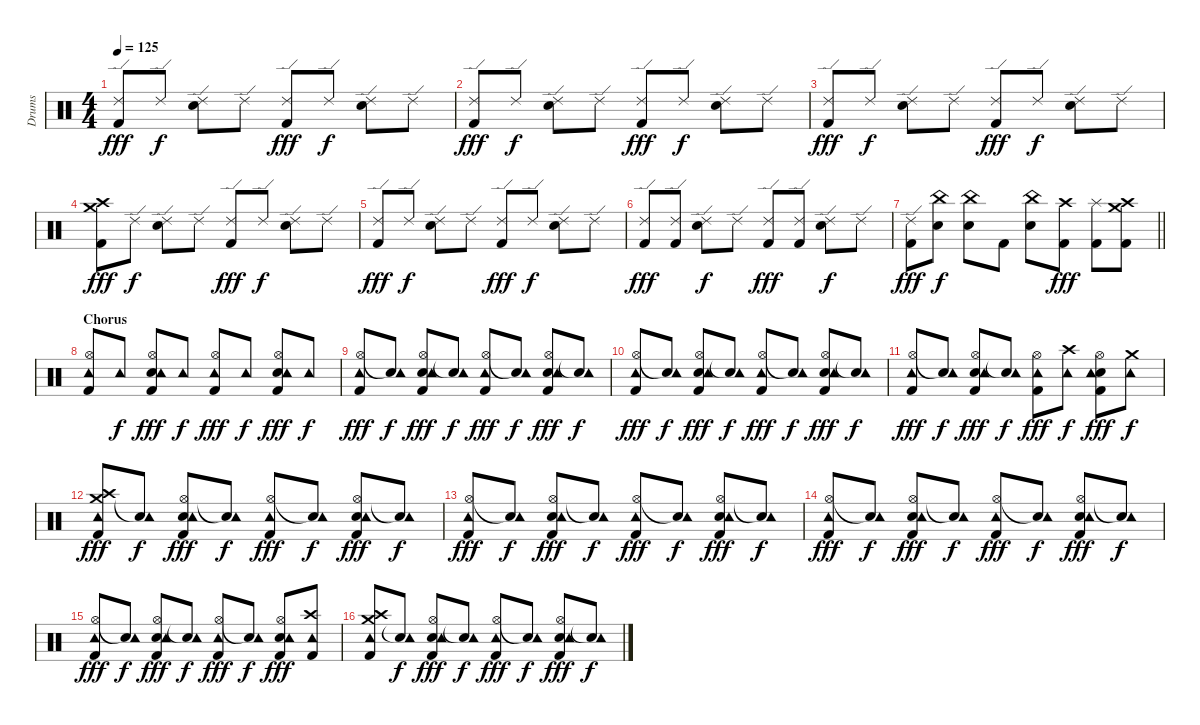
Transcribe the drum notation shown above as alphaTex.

\track ("Drums" "Drums") {instrument percussion}
\staff {score}
\articulation defaults
\ts (4 4)
\tempo 125
\clef neutral
\ks c
("Ride (edge) 2" "Kick (hit) 2").8{dy fff} "Ride (edge) 2".8{dy f} ("Ride (edge) 2" "Electric Snare (hit)").8 "Ride (edge) 2".8 ("Ride (edge) 2" "Kick (hit) 2").8{dy fff} "Ride (edge) 2".8{dy f} ("Ride (edge) 2" "Electric Snare (hit)").8 "Ride (edge) 2".8 |
("Ride (edge) 2" "Kick (hit) 2").8{dy fff} "Ride (edge) 2".8{dy f} ("Ride (edge) 2" "Electric Snare (hit)").8 "Ride (edge) 2".8 ("Ride (edge) 2" "Kick (hit) 2").8{dy fff} "Ride (edge) 2".8{dy f} ("Ride (edge) 2" "Electric Snare (hit)").8 "Ride (edge) 2".8 |
("Ride (edge) 2" "Kick (hit) 2").8{dy fff} "Ride (edge) 2".8{dy f} ("Ride (edge) 2" "Electric Snare (hit)").8 "Ride (edge) 2".8 ("Ride (edge) 2" "Kick (hit) 2").8{dy fff} "Ride (edge) 2".8{dy f} ("Ride (edge) 2" "Electric Snare (hit)").8 "Ride (edge) 2".8 |
("Crash high (hit)" "Kick (hit) 2" "Crash medium (hit)").8{dy fff} "Ride (edge) 2".8{dy f} ("Ride (edge) 2" "Electric Snare (hit)").8 "Ride (edge) 2".8 ("Ride (edge) 2" "Kick (hit) 2").8{dy fff} "Ride (edge) 2".8{dy f} ("Ride (edge) 2" "Electric Snare (hit)").8 "Ride (edge) 2".8 |
("Ride (edge) 2" "Kick (hit) 2").8{dy fff} "Ride (edge) 2".8{dy f} ("Ride (edge) 2" "Electric Snare (hit)").8 "Ride (edge) 2".8 ("Ride (edge) 2" "Kick (hit) 2").8{dy fff} "Ride (edge) 2".8{dy f} ("Ride (edge) 2" "Electric Snare (hit)").8 "Ride (edge) 2".8 |
("Ride (edge) 2" "Kick (hit) 2").8{dy fff} ("Ride (edge) 2" "Kick (hit) 2").8 ("Ride (edge) 2" "Electric Snare (hit)").8{dy f} "Ride (edge) 2".8 ("Ride (edge) 2" "Kick (hit) 2").8{dy fff} ("Ride (edge) 2" "Kick (hit) 2").8 ("Ride (edge) 2" "Electric Snare (hit)").8{dy f} "Ride (edge) 2".8 |
\barLineRight lightlight
("Ride (edge) 2" "Kick (hit) 2").8{dy fff} ("Electric Snare (hit)" "China (hit)").8{dy f} ("Electric Snare (hit)" "China (hit)").8 "Kick (hit) 2".8 ("Electric Snare (hit)" "China (hit)").8 ("Crash high (hit)" "Kick (hit) 2").8{dy fff} ("Splash (hit)" "Kick (hit) 2").8 ("Crash medium (hit)" "Kick (hit) 2" "Crash high (hit)").8 |
\section ("" "Chorus")
("Hi-Hat (open)" "Kick (hit) 2" "Tambourine (hit)").8 "Tambourine (hit)".8{dy f} ("Hi-Hat (open)" "Kick (hit) 2" "Electric Snare (hit)" "Tambourine (hit)").8{dy fff} "Tambourine (hit)".8{dy f} ("Hi-Hat (open)" "Kick (hit) 2" "Tambourine (hit)").8{dy fff} "Tambourine (hit)".8{dy f} ("Hi-Hat (open)" "Kick (hit) 2" "Electric Snare (hit)" "Tambourine (hit)").8{dy fff} "Tambourine (hit)".8{dy f} |
("Hi-Hat (open)" "Kick (hit) 2" "Tambourine (hit)").8{dy fff} ("Snare (hit)"{t} "Tambourine (hit)").8{dy f} ("Hi-Hat (open)" "Kick (hit) 2" "Electric Snare (hit)" "Tambourine (hit)").8{dy fff} ("Snare (hit)"{t} "Tambourine (hit)").8{dy f} ("Hi-Hat (open)" "Kick (hit) 2" "Tambourine (hit)").8{dy fff} ("Snare (hit)"{t} "Tambourine (hit)").8{dy f} ("Hi-Hat (open)" "Kick (hit) 2" "Electric Snare (hit)" "Tambourine (hit)").8{dy fff} ("Snare (hit)"{t} "Tambourine (hit)").8{dy f} |
("Hi-Hat (open)" "Kick (hit) 2" "Tambourine (hit)").8{dy fff} ("Snare (hit)"{t} "Tambourine (hit)").8{dy f} ("Hi-Hat (open)" "Kick (hit) 2" "Electric Snare (hit)" "Tambourine (hit)").8{dy fff} ("Snare (hit)"{t} "Tambourine (hit)").8{dy f} ("Hi-Hat (open)" "Kick (hit) 2" "Tambourine (hit)").8{dy fff} ("Snare (hit)"{t} "Tambourine (hit)").8{dy f} ("Hi-Hat (open)" "Kick (hit) 2" "Electric Snare (hit)" "Tambourine (hit)").8{dy fff} ("Snare (hit)"{t} "Tambourine (hit)").8{dy f} |
("Hi-Hat (open)" "Kick (hit) 2" "Tambourine (hit)").8{dy fff} ("Snare (hit)"{t} "Tambourine (hit)").8{dy f} ("Hi-Hat (open)" "Kick (hit) 2" "Electric Snare (hit)" "Tambourine (hit)").8{dy fff} ("Snare (hit)"{t} "Tambourine (hit)").8{dy f} ("Hi-Hat (open)" "Kick (hit) 2" "Tambourine (hit)").8{dy fff} ("Crash high (hit)" "Tambourine (hit)").8{dy f} ("Hi-Hat (open)" "Kick (hit) 2" "Electric Snare (hit)" "Tambourine (hit)").8{dy fff} ("Crash medium (hit)" "Tambourine (hit)").8{dy f} |
("Crash high (hit)" "Kick (hit) 2" "Crash medium (hit)" "Tambourine (hit)").8{dy fff} ("Snare (hit)"{t} "Tambourine (hit)").8{dy f} ("Hi-Hat (open)" "Kick (hit) 2" "Electric Snare (hit)" "Tambourine (hit)").8{dy fff} ("Snare (hit)"{t} "Tambourine (hit)").8{dy f} ("Hi-Hat (open)" "Kick (hit) 2" "Tambourine (hit)").8{dy fff} ("Snare (hit)"{t} "Tambourine (hit)").8{dy f} ("Hi-Hat (open)" "Kick (hit) 2" "Electric Snare (hit)" "Tambourine (hit)").8{dy fff} ("Snare (hit)"{t} "Tambourine (hit)").8{dy f} |
("Hi-Hat (open)" "Kick (hit) 2" "Tambourine (hit)").8{dy fff} ("Snare (hit)"{t} "Tambourine (hit)").8{dy f} ("Hi-Hat (open)" "Kick (hit) 2" "Electric Snare (hit)" "Tambourine (hit)").8{dy fff} ("Snare (hit)"{t} "Tambourine (hit)").8{dy f} ("Hi-Hat (open)" "Kick (hit) 2" "Tambourine (hit)").8{dy fff} ("Snare (hit)"{t} "Tambourine (hit)").8{dy f} ("Hi-Hat (open)" "Kick (hit) 2" "Electric Snare (hit)" "Tambourine (hit)").8{dy fff} ("Snare (hit)"{t} "Tambourine (hit)").8{dy f} |
("Hi-Hat (open)" "Kick (hit) 2" "Tambourine (hit)").8{dy fff} ("Snare (hit)"{t} "Tambourine (hit)").8{dy f} ("Hi-Hat (open)" "Kick (hit) 2" "Electric Snare (hit)" "Tambourine (hit)").8{dy fff} ("Snare (hit)"{t} "Tambourine (hit)").8{dy f} ("Hi-Hat (open)" "Kick (hit) 2" "Tambourine (hit)").8{dy fff} ("Snare (hit)"{t} "Tambourine (hit)").8{dy f} ("Hi-Hat (open)" "Kick (hit) 2" "Electric Snare (hit)" "Tambourine (hit)").8{dy fff} ("Snare (hit)"{t} "Tambourine (hit)").8{dy f} |
("Hi-Hat (open)" "Kick (hit) 2" "Tambourine (hit)").8{dy fff} ("Snare (hit)"{t} "Tambourine (hit)").8{dy f} ("Hi-Hat (open)" "Kick (hit) 2" "Electric Snare (hit)" "Tambourine (hit)").8{dy fff} ("Snare (hit)"{t} "Tambourine (hit)").8{dy f} ("Hi-Hat (open)" "Kick (hit) 2" "Tambourine (hit)").8{dy fff} ("Snare (hit)"{t} "Tambourine (hit)").8{dy f} ("Hi-Hat (open)" "Kick (hit) 2" "Electric Snare (hit)" "Tambourine (hit)").8{dy fff} ("Crash high (hit)" "Kick (hit) 2" "Tambourine (hit)").8 |
("Crash medium (hit)" "Kick (hit) 2" "Crash high (hit)" "Tambourine (hit)").8 ("Snare (hit)"{t} "Tambourine (hit)").8{dy f} ("Hi-Hat (open)" "Kick (hit) 2" "Electric Snare (hit)" "Tambourine (hit)").8{dy fff} ("Snare (hit)"{t} "Tambourine (hit)").8{dy f} ("Hi-Hat (open)" "Kick (hit) 2" "Tambourine (hit)").8{dy fff} ("Snare (hit)"{t} "Tambourine (hit)").8{dy f} ("Hi-Hat (open)" "Kick (hit) 2" "Electric Snare (hit)" "Tambourine (hit)").8{dy fff} ("Snare (hit)"{t} "Tambourine (hit)").8{dy f}
